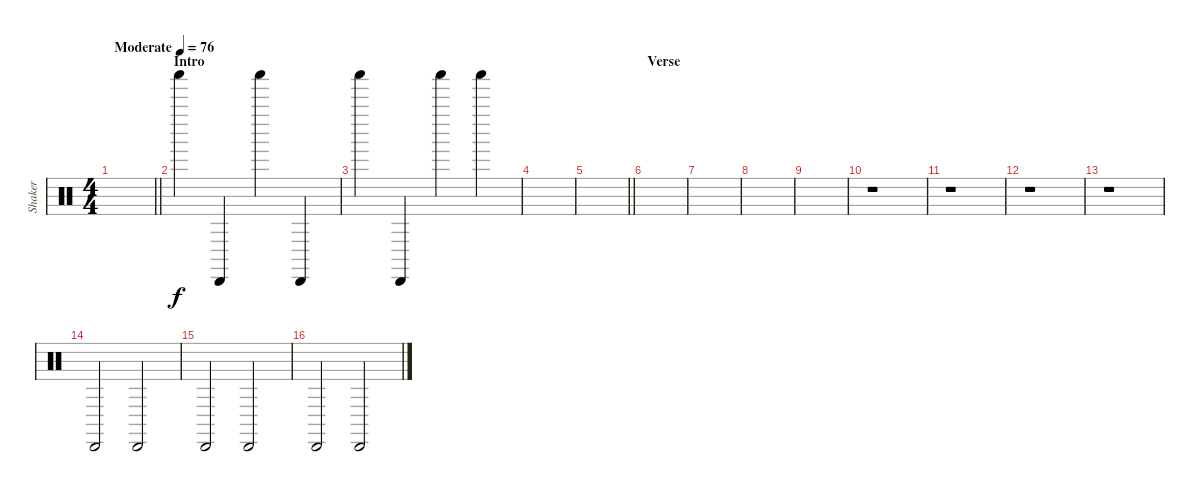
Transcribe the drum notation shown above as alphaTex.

\track ("Shaker" "Shaker") {instrument percussion}
\staff {score}
\articulation defaults
\ts (4 4)
\tempo (76 "Moderate")
\clef neutral
\barLineRight lightlight
\ks c
|
\section ("" "Intro")
"Shaker (hit)".4 "Cabasa (hit)".4 "Shaker (hit)".4 "Cabasa (hit)".4 |
"Shaker (hit)".4 "Cabasa (hit)".4 "Shaker (hit)".4 "Shaker (hit)".4 |
|
\barLineRight lightlight
|
\section ("" "Verse")
|
|
|
|
r.1 |
r.1 |
r.1 |
r.1 |
"Cabasa (hit)".2 "Cabasa (hit)".2 |
"Cabasa (hit)".2 "Cabasa (hit)".2 |
"Cabasa (hit)".2 "Cabasa (hit)".2
